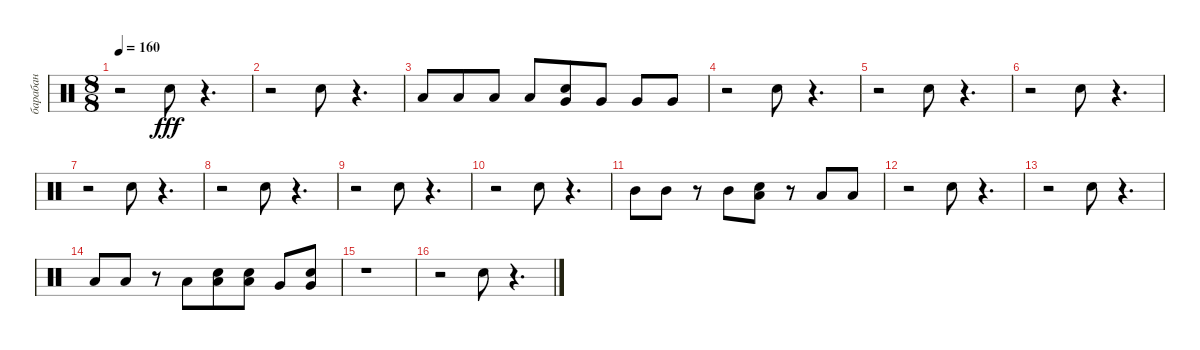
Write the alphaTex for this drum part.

\track ("барабан" "барабан") {instrument percussion}
\staff {score}
\articulation defaults
\ts (8 8)
\tempo 160
\clef neutral
\ks c
r.2{dy fff} "Snare (hit) 2".8 r.4{d} |
r.2 "Snare (hit) 2".8 r.4{d} |
"Low Tom (hit)".8 "Low Tom (hit)".8 "Low Tom (hit)".8 "Low Tom (hit)".8 ("Snare (hit) 2" "Very Low Tom (hit)").8 "Very Low Tom (hit)".8 "Very Low Tom (hit)".8 "Very Low Tom (hit)".8 |
r.2 "Snare (hit) 2".8 r.4{d} |
r.2 "Snare (hit) 2".8 r.4{d} |
r.2 "Snare (hit) 2".8 r.4{d} |
r.2 "Snare (hit) 2".8 r.4{d} |
r.2 "Snare (hit) 2".8 r.4{d} |
r.2 "Snare (hit) 2".8 r.4{d} |
r.2 "Snare (hit) 2".8 r.4{d} |
"Mid Tom (hit)".8 "Mid Tom (hit)".8 r.8 "Mid Tom (hit)".8 ("Snare (hit) 2" "Low Tom (hit)").8 r.8 "Low Tom (hit)".8 "Low Tom (hit)".8 |
r.2 "Snare (hit) 2".8 r.4{d} |
r.2 "Snare (hit) 2".8 r.4{d} |
"Low Tom (hit)".8 "Low Tom (hit)".8 r.8 "Low Tom (hit)".8 ("Snare (hit) 2" "Low Tom (hit)").8 ("Snare (hit) 2" "Low Tom (hit)").8 "Very Low Tom (hit)".8 ("Snare (hit) 2" "Very Low Tom (hit)").8 |
r.1 |
r.2 "Snare (hit) 2".8 r.4{d}
